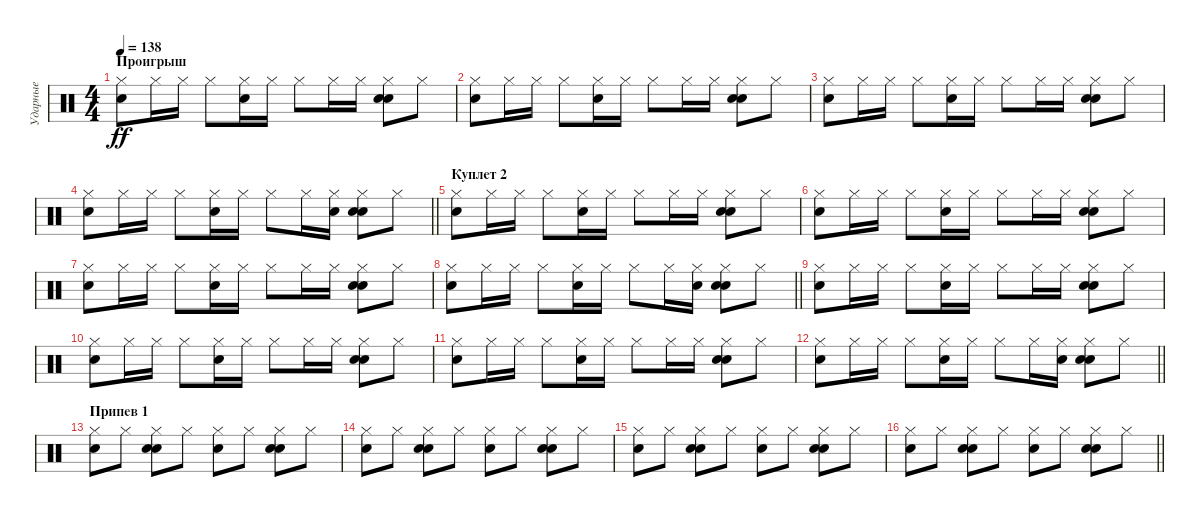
\track ("Ударные" "Ударные") {instrument percussion}
\staff {score}
\articulation defaults
\ts (4 4)
\section ("" "Проигрыш")
\tempo 138
\clef neutral
\ks c
("Hi-Hat (closed)" "Snare (hit) 2").8{dy ff} "Hi-Hat (closed)".16 "Hi-Hat (closed)".16 "Hi-Hat (closed)".8 ("Hi-Hat (closed)" "Snare (hit) 2").16 "Hi-Hat (closed)".16 "Hi-Hat (closed)".8 "Hi-Hat (closed)".16 "Hi-Hat (closed)".16 ("Hi-Hat (closed)" "Snare (hit) 2" "Electric Snare (hit)").8 "Hi-Hat (closed)".8 |
("Hi-Hat (closed)" "Snare (hit) 2").8 "Hi-Hat (closed)".16 "Hi-Hat (closed)".16 "Hi-Hat (closed)".8 ("Hi-Hat (closed)" "Snare (hit) 2").16 "Hi-Hat (closed)".16 "Hi-Hat (closed)".8 "Hi-Hat (closed)".16 "Hi-Hat (closed)".16 ("Hi-Hat (closed)" "Snare (hit) 2" "Electric Snare (hit)").8 "Hi-Hat (closed)".8 |
("Hi-Hat (closed)" "Snare (hit) 2").8 "Hi-Hat (closed)".16 "Hi-Hat (closed)".16 "Hi-Hat (closed)".8 ("Hi-Hat (closed)" "Snare (hit) 2").16 "Hi-Hat (closed)".16 "Hi-Hat (closed)".8 "Hi-Hat (closed)".16 "Hi-Hat (closed)".16 ("Hi-Hat (closed)" "Snare (hit) 2" "Electric Snare (hit)").8 "Hi-Hat (closed)".8 |
\barLineRight lightlight
("Hi-Hat (closed)" "Snare (hit) 2").8 "Hi-Hat (closed)".16 "Hi-Hat (closed)".16 "Hi-Hat (closed)".8 ("Hi-Hat (closed)" "Snare (hit) 2").16 "Hi-Hat (closed)".16 "Hi-Hat (closed)".8 "Hi-Hat (closed)".16 ("Hi-Hat (closed)" "Electric Snare (hit)").16 ("Hi-Hat (closed)" "Snare (hit) 2" "Electric Snare (hit)").8 "Hi-Hat (closed)".8 |
\section ("" "Куплет 2")
("Hi-Hat (closed)" "Snare (hit) 2").8 "Hi-Hat (closed)".16 "Hi-Hat (closed)".16 "Hi-Hat (closed)".8 ("Hi-Hat (closed)" "Snare (hit) 2").16 "Hi-Hat (closed)".16 "Hi-Hat (closed)".8 "Hi-Hat (closed)".16 "Hi-Hat (closed)".16 ("Hi-Hat (closed)" "Snare (hit) 2" "Electric Snare (hit)").8 "Hi-Hat (closed)".8 |
("Hi-Hat (closed)" "Snare (hit) 2").8 "Hi-Hat (closed)".16 "Hi-Hat (closed)".16 "Hi-Hat (closed)".8 ("Hi-Hat (closed)" "Snare (hit) 2").16 "Hi-Hat (closed)".16 "Hi-Hat (closed)".8 "Hi-Hat (closed)".16 "Hi-Hat (closed)".16 ("Hi-Hat (closed)" "Snare (hit) 2" "Electric Snare (hit)").8 "Hi-Hat (closed)".8 |
("Hi-Hat (closed)" "Snare (hit) 2").8 "Hi-Hat (closed)".16 "Hi-Hat (closed)".16 "Hi-Hat (closed)".8 ("Hi-Hat (closed)" "Snare (hit) 2").16 "Hi-Hat (closed)".16 "Hi-Hat (closed)".8 "Hi-Hat (closed)".16 "Hi-Hat (closed)".16 ("Hi-Hat (closed)" "Snare (hit) 2" "Electric Snare (hit)").8 "Hi-Hat (closed)".8 |
\barLineRight lightlight
("Hi-Hat (closed)" "Snare (hit) 2").8 "Hi-Hat (closed)".16 "Hi-Hat (closed)".16 "Hi-Hat (closed)".8 ("Hi-Hat (closed)" "Snare (hit) 2").16 "Hi-Hat (closed)".16 "Hi-Hat (closed)".8 "Hi-Hat (closed)".16 ("Hi-Hat (closed)" "Electric Snare (hit)").16 ("Hi-Hat (closed)" "Snare (hit) 2" "Electric Snare (hit)").8 "Hi-Hat (closed)".8 |
("Hi-Hat (closed)" "Snare (hit) 2").8 "Hi-Hat (closed)".16 "Hi-Hat (closed)".16 "Hi-Hat (closed)".8 ("Hi-Hat (closed)" "Snare (hit) 2").16 "Hi-Hat (closed)".16 "Hi-Hat (closed)".8 "Hi-Hat (closed)".16 "Hi-Hat (closed)".16 ("Hi-Hat (closed)" "Snare (hit) 2" "Electric Snare (hit)").8 "Hi-Hat (closed)".8 |
("Hi-Hat (closed)" "Snare (hit) 2").8 "Hi-Hat (closed)".16 "Hi-Hat (closed)".16 "Hi-Hat (closed)".8 ("Hi-Hat (closed)" "Snare (hit) 2").16 "Hi-Hat (closed)".16 "Hi-Hat (closed)".8 "Hi-Hat (closed)".16 "Hi-Hat (closed)".16 ("Hi-Hat (closed)" "Snare (hit) 2" "Electric Snare (hit)").8 "Hi-Hat (closed)".8 |
("Hi-Hat (closed)" "Snare (hit) 2").8 "Hi-Hat (closed)".16 "Hi-Hat (closed)".16 "Hi-Hat (closed)".8 ("Hi-Hat (closed)" "Snare (hit) 2").16 "Hi-Hat (closed)".16 "Hi-Hat (closed)".8 "Hi-Hat (closed)".16 "Hi-Hat (closed)".16 ("Hi-Hat (closed)" "Snare (hit) 2" "Electric Snare (hit)").8 "Hi-Hat (closed)".8 |
\barLineRight lightlight
("Hi-Hat (closed)" "Snare (hit) 2").8 "Hi-Hat (closed)".16 "Hi-Hat (closed)".16 "Hi-Hat (closed)".8 ("Hi-Hat (closed)" "Snare (hit) 2").16 "Hi-Hat (closed)".16 "Hi-Hat (closed)".8 "Hi-Hat (closed)".16 ("Hi-Hat (closed)" "Electric Snare (hit)").16 ("Hi-Hat (closed)" "Snare (hit) 2" "Electric Snare (hit)").8 "Hi-Hat (closed)".8 |
\section ("" "Припев 1")
("Hi-Hat (closed)" "Snare (hit) 2").8 "Hi-Hat (closed)".8 ("Hi-Hat (closed)" "Snare (hit) 2" "Electric Snare (hit)").8 "Hi-Hat (closed)".8 ("Hi-Hat (closed)" "Snare (hit) 2").8 "Hi-Hat (closed)".8 ("Hi-Hat (closed)" "Snare (hit) 2" "Electric Snare (hit)").8 "Hi-Hat (closed)".8 |
("Hi-Hat (closed)" "Snare (hit) 2").8 "Hi-Hat (closed)".8 ("Hi-Hat (closed)" "Snare (hit) 2" "Electric Snare (hit)").8 "Hi-Hat (closed)".8 ("Hi-Hat (closed)" "Snare (hit) 2").8 "Hi-Hat (closed)".8 ("Hi-Hat (closed)" "Snare (hit) 2" "Electric Snare (hit)").8 "Hi-Hat (closed)".8 |
("Hi-Hat (closed)" "Snare (hit) 2").8 "Hi-Hat (closed)".8 ("Hi-Hat (closed)" "Snare (hit) 2" "Electric Snare (hit)").8 "Hi-Hat (closed)".8 ("Hi-Hat (closed)" "Snare (hit) 2").8 "Hi-Hat (closed)".8 ("Hi-Hat (closed)" "Snare (hit) 2" "Electric Snare (hit)").8 "Hi-Hat (closed)".8 |
\barLineRight lightlight
("Hi-Hat (closed)" "Snare (hit) 2").8 "Hi-Hat (closed)".8 ("Hi-Hat (closed)" "Snare (hit) 2" "Electric Snare (hit)").8 "Hi-Hat (closed)".8 ("Hi-Hat (closed)" "Snare (hit) 2").8 "Hi-Hat (closed)".8 ("Hi-Hat (closed)" "Snare (hit) 2" "Electric Snare (hit)").8 "Hi-Hat (closed)".8
